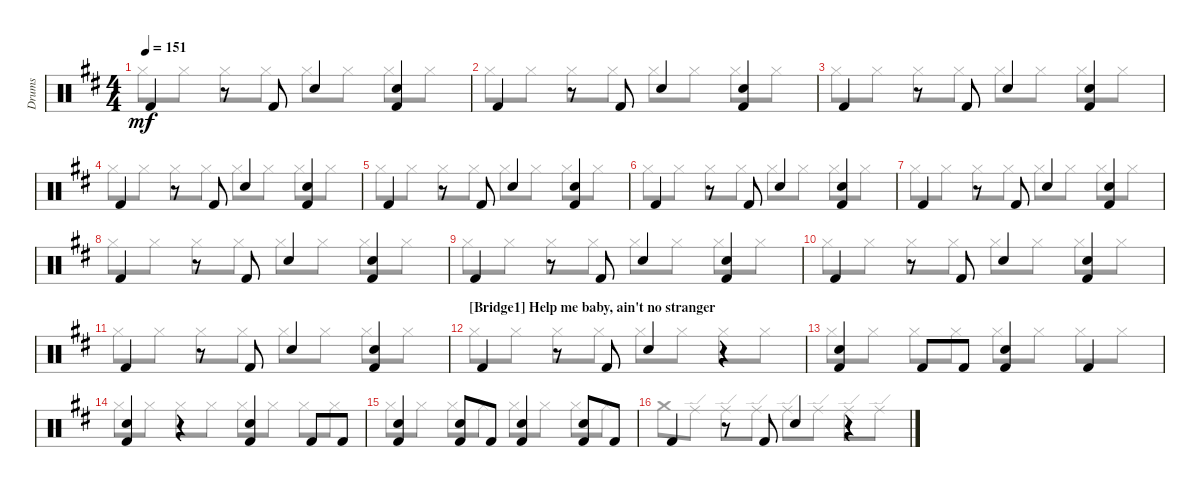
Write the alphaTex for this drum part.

\bracketExtendMode groupsimilarinstruments
\track ("Drumkit" "Drums") {instrument percussion}
\staff {score}
\articulation defaults
\voice
\ts (4 4)
\tempo 151
\clef neutral
\ks d "Kick (hit) 2"{acc forcenatural}.4{dy mf}
r.8 "Kick (hit) 2"{acc forcenatural}.8 "Snare (hit) 2"{acc forcenatural}.4 ("Kick (hit) 2"{acc forcenatural} "Snare (hit) 2"{acc forcenatural}).4 |
"Kick (hit) 2"{acc forcenatural}.4 r.8 "Kick (hit) 2"{acc forcenatural}.8 "Snare (hit) 2"{acc forcenatural}.4 ("Kick (hit) 2"{acc forcenatural} "Snare (hit) 2"{acc forcenatural}).4 |
"Kick (hit) 2"{acc forcenatural}.4 r.8 "Kick (hit) 2"{acc forcenatural}.8 "Snare (hit) 2"{acc forcenatural}.4 ("Kick (hit) 2"{acc forcenatural} "Snare (hit) 2"{acc forcenatural}).4 |
"Kick (hit) 2"{acc forcenatural}.4 r.8 "Kick (hit) 2"{acc forcenatural}.8 "Snare (hit) 2"{acc forcenatural}.4 ("Kick (hit) 2"{acc forcenatural} "Snare (hit) 2"{acc forcenatural}).4 |
"Kick (hit) 2"{acc forcenatural}.4 r.8 "Kick (hit) 2"{acc forcenatural}.8 "Snare (hit) 2"{acc forcenatural}.4 ("Kick (hit) 2"{acc forcenatural} "Snare (hit) 2"{acc forcenatural}).4 |
"Kick (hit) 2"{acc forcenatural}.4 r.8 "Kick (hit) 2"{acc forcenatural}.8 "Snare (hit) 2"{acc forcenatural}.4 ("Kick (hit) 2"{acc forcenatural} "Snare (hit) 2"{acc forcenatural}).4 |
"Kick (hit) 2"{acc forcenatural}.4 r.8 "Kick (hit) 2"{acc forcenatural}.8 "Snare (hit) 2"{acc forcenatural}.4 ("Kick (hit) 2"{acc forcenatural} "Snare (hit) 2"{acc forcenatural}).4 |
"Kick (hit) 2"{acc forcenatural}.4 r.8 "Kick (hit) 2"{acc forcenatural}.8 "Snare (hit) 2"{acc forcenatural}.4 ("Kick (hit) 2"{acc forcenatural} "Snare (hit) 2"{acc forcenatural}).4 |
"Kick (hit) 2"{acc forcenatural}.4 r.8 "Kick (hit) 2"{acc forcenatural}.8 "Snare (hit) 2"{acc forcenatural}.4 ("Kick (hit) 2"{acc forcenatural} "Snare (hit) 2"{acc forcenatural}).4 |
"Kick (hit) 2"{acc forcenatural}.4 r.8 "Kick (hit) 2"{acc forcenatural}.8 "Snare (hit) 2"{acc forcenatural}.4 ("Kick (hit) 2"{acc forcenatural} "Snare (hit) 2"{acc forcenatural}).4 |
"Kick (hit) 2"{acc forcenatural}.4 r.8 "Kick (hit) 2"{acc forcenatural}.8 "Snare (hit) 2"{acc forcenatural}.4 ("Kick (hit) 2"{acc forcenatural} "Snare (hit) 2"{acc forcenatural}).4 |
\section ("" "[Bridge1] Help me baby, ain't no stranger")
"Kick (hit) 2"{acc forcenatural}.4 r.8 "Kick (hit) 2"{acc forcenatural}.8 "Snare (hit) 2"{acc forcenatural}.4 r.4 |
("Kick (hit) 2"{acc forcenatural} "Snare (hit) 2"{acc forcenatural}).4 "Kick (hit) 2"{acc forcenatural}.8 "Kick (hit) 2"{acc forcenatural}.8 ("Kick (hit) 2"{acc forcenatural} "Snare (hit) 2"{acc forcenatural}).4 "Kick (hit) 2"{acc forcenatural}.4 |
("Kick (hit) 2"{acc forcenatural} "Snare (hit) 2"{acc forcenatural}).4 r.4 ("Kick (hit) 2"{acc forcenatural} "Snare (hit) 2"{acc forcenatural}).4 "Kick (hit) 2"{acc forcenatural}.8 "Kick (hit) 2"{acc forcenatural}.8 |
("Kick (hit) 2"{acc forcenatural} "Snare (hit) 2"{acc forcenatural}).4 ("Kick (hit) 2"{acc forcenatural} "Snare (hit) 2"{acc forcenatural}).8 "Kick (hit) 2"{acc forcenatural}.8 ("Kick (hit) 2"{acc forcenatural} "Snare (hit) 2"{acc forcenatural}).4 ("Kick (hit) 2"{acc forcenatural} "Snare (hit) 2"{acc forcenatural}).8 "Kick (hit) 2"{acc forcenatural}.8 |
"Kick (hit) 2"{acc forcenatural}.4 r.8 "Kick (hit) 2"{acc forcenatural}.8 "Snare (hit) 2"{acc forcenatural}.4 r.4
\voice
\clef neutral
\ottava regular
\simile none
\ks d "Hi-Hat (closed)"{acc forcenatural}.8{dy mf} "Hi-Hat (closed)"{acc forcenatural}.8 "Hi-Hat (closed)"{acc forcenatural}.8 "Hi-Hat (closed)"{acc forcenatural}.8 "Hi-Hat (closed)"{acc forcenatural}.8 "Hi-Hat (closed)"{acc forcenatural}.8 "Hi-Hat (closed)"{acc forcenatural}.8 "Hi-Hat (closed)"{acc forcenatural}.8
|
"Hi-Hat (closed)"{acc forcenatural}.8 "Hi-Hat (closed)"{acc forcenatural}.8 "Hi-Hat (closed)"{acc forcenatural}.8 "Hi-Hat (closed)"{acc forcenatural}.8 "Hi-Hat (closed)"{acc forcenatural}.8 "Hi-Hat (closed)"{acc forcenatural}.8 "Hi-Hat (closed)"{acc forcenatural}.8 "Hi-Hat (closed)"{acc forcenatural}.8 |
"Hi-Hat (closed)"{acc forcenatural}.8 "Hi-Hat (closed)"{acc forcenatural}.8 "Hi-Hat (closed)"{acc forcenatural}.8 "Hi-Hat (closed)"{acc forcenatural}.8 "Hi-Hat (closed)"{acc forcenatural}.8 "Hi-Hat (closed)"{acc forcenatural}.8 "Hi-Hat (closed)"{acc forcenatural}.8 "Hi-Hat (closed)"{acc forcenatural}.8 |
"Hi-Hat (closed)"{acc forcenatural}.8 "Hi-Hat (closed)"{acc forcenatural}.8 "Hi-Hat (closed)"{acc forcenatural}.8 "Hi-Hat (closed)"{acc forcenatural}.8 "Hi-Hat (closed)"{acc forcenatural}.8 "Hi-Hat (closed)"{acc forcenatural}.8 "Hi-Hat (closed)"{acc forcenatural}.8 "Hi-Hat (closed)"{acc forcenatural}.8 |
"Hi-Hat (closed)"{acc forcenatural}.8 "Hi-Hat (closed)"{acc forcenatural}.8 "Hi-Hat (closed)"{acc forcenatural}.8 "Hi-Hat (closed)"{acc forcenatural}.8 "Hi-Hat (closed)"{acc forcenatural}.8 "Hi-Hat (closed)"{acc forcenatural}.8 "Hi-Hat (closed)"{acc forcenatural}.8 "Hi-Hat (closed)"{acc forcenatural}.8 |
"Hi-Hat (closed)"{acc forcenatural}.8 "Hi-Hat (closed)"{acc forcenatural}.8 "Hi-Hat (closed)"{acc forcenatural}.8 "Hi-Hat (closed)"{acc forcenatural}.8 "Hi-Hat (closed)"{acc forcenatural}.8 "Hi-Hat (closed)"{acc forcenatural}.8 "Hi-Hat (closed)"{acc forcenatural}.8 "Hi-Hat (closed)"{acc forcenatural}.8 |
"Hi-Hat (closed)"{acc forcenatural}.8 "Hi-Hat (closed)"{acc forcenatural}.8 "Hi-Hat (closed)"{acc forcenatural}.8 "Hi-Hat (closed)"{acc forcenatural}.8 "Hi-Hat (closed)"{acc forcenatural}.8 "Hi-Hat (closed)"{acc forcenatural}.8 "Hi-Hat (closed)"{acc forcenatural}.8 "Hi-Hat (closed)"{acc forcenatural}.8 |
"Hi-Hat (closed)"{acc forcenatural}.8 "Hi-Hat (closed)"{acc forcenatural}.8 "Hi-Hat (closed)"{acc forcenatural}.8 "Hi-Hat (closed)"{acc forcenatural}.8 "Hi-Hat (closed)"{acc forcenatural}.8 "Hi-Hat (closed)"{acc forcenatural}.8 "Hi-Hat (closed)"{acc forcenatural}.8 "Hi-Hat (closed)"{acc forcenatural}.8 |
"Hi-Hat (closed)"{acc forcenatural}.8 "Hi-Hat (closed)"{acc forcenatural}.8 "Hi-Hat (closed)"{acc forcenatural}.8 "Hi-Hat (closed)"{acc forcenatural}.8 "Hi-Hat (closed)"{acc forcenatural}.8 "Hi-Hat (closed)"{acc forcenatural}.8 "Hi-Hat (closed)"{acc forcenatural}.8 "Hi-Hat (closed)"{acc forcenatural}.8 |
"Hi-Hat (closed)"{acc forcenatural}.8 "Hi-Hat (closed)"{acc forcenatural}.8 "Hi-Hat (closed)"{acc forcenatural}.8 "Hi-Hat (closed)"{acc forcenatural}.8 "Hi-Hat (closed)"{acc forcenatural}.8 "Hi-Hat (closed)"{acc forcenatural}.8 "Hi-Hat (closed)"{acc forcenatural}.8 "Hi-Hat (closed)"{acc forcenatural}.8 |
"Hi-Hat (closed)"{acc forcenatural}.8 "Hi-Hat (closed)"{acc forcenatural}.8 "Hi-Hat (closed)"{acc forcenatural}.8 "Hi-Hat (closed)"{acc forcenatural}.8 "Hi-Hat (closed)"{acc forcenatural}.8 "Hi-Hat (closed)"{acc forcenatural}.8 "Hi-Hat (closed)"{acc forcenatural}.8 "Hi-Hat (closed)"{acc forcenatural}.8 |
"Hi-Hat (closed)"{acc forcenatural}.8 "Hi-Hat (closed)"{acc forcenatural}.8 "Hi-Hat (closed)"{acc forcenatural}.8 "Hi-Hat (closed)"{acc forcenatural}.8 "Hi-Hat (closed)"{acc forcenatural}.8 "Hi-Hat (closed)"{acc forcenatural}.8 "Hi-Hat (closed)"{acc forcenatural}.8 "Hi-Hat (closed)"{acc forcenatural}.8 |
"Hi-Hat (closed)"{acc forcenatural}.8 "Hi-Hat (closed)"{acc forcenatural}.8 "Hi-Hat (closed)"{acc forcenatural}.8 "Hi-Hat (closed)"{acc forcenatural}.8 "Hi-Hat (closed)"{acc forcenatural}.8 "Hi-Hat (closed)"{acc forcenatural}.8 "Hi-Hat (closed)"{acc forcenatural}.8 "Hi-Hat (closed)"{acc forcenatural}.8 |
"Hi-Hat (closed)"{acc forcenatural}.8 "Hi-Hat (closed)"{acc forcenatural}.8 "Hi-Hat (closed)"{acc forcenatural}.8 "Hi-Hat (closed)"{acc forcenatural}.8 "Hi-Hat (closed)"{acc forcenatural}.8 "Hi-Hat (closed)"{acc forcenatural}.8 "Hi-Hat (closed)"{acc forcenatural}.8 "Hi-Hat (closed)"{acc forcenatural}.8 |
"Hi-Hat (closed)"{acc forcenatural}.8 "Hi-Hat (closed)"{acc forcenatural}.8 "Hi-Hat (closed)"{acc forcenatural}.8 "Hi-Hat (closed)"{acc forcenatural}.8 "Hi-Hat (closed)"{acc forcenatural}.8 "Hi-Hat (closed)"{acc forcenatural}.8 "Hi-Hat (closed)"{acc forcenatural}.8 "Hi-Hat (closed)"{acc forcenatural}.8 |
"Crash medium (hit)"{acc forcenatural}.8 "Ride (edge)"{acc forcenatural}.8 "Ride (edge)"{acc forcenatural}.8 "Ride (edge)"{acc forcenatural}.8 "Ride (edge)"{acc forcenatural}.8 "Ride (edge)"{acc forcenatural}.8 "Ride (edge)"{acc forcenatural}.8 "Ride (edge)"{acc forcenatural}.8
